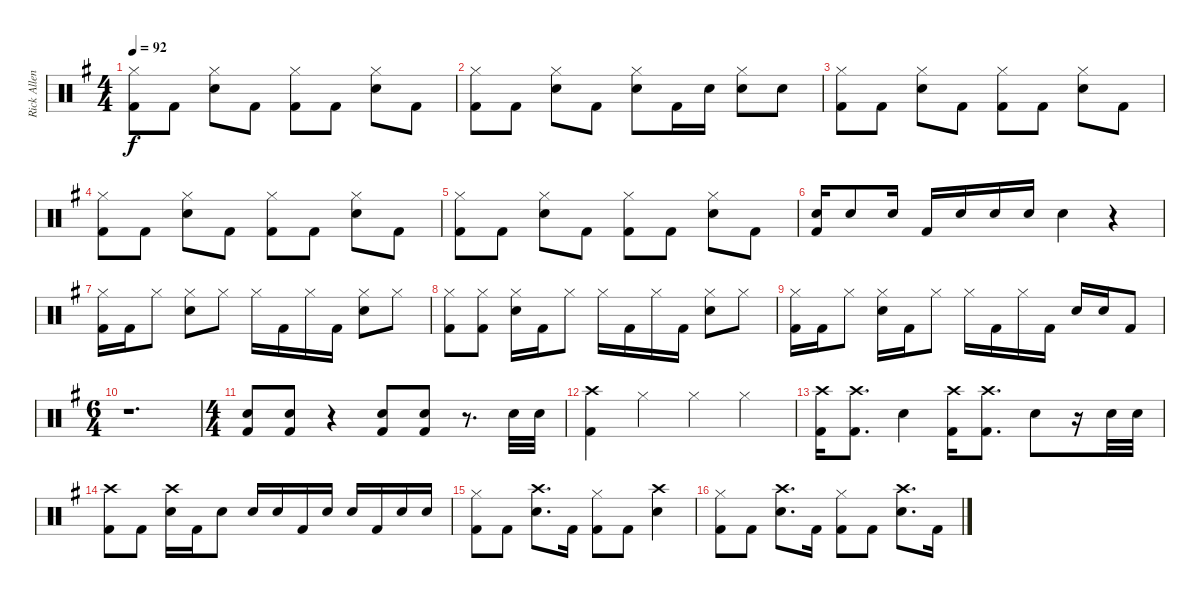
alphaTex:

\track ("Rick Allen" "Rick Allen") {instrument percussion}
\staff {score}
\articulation defaults
\ts (4 4)
\tempo 92
\clef neutral
\ks eminor
("Hi-Hat (closed)" "Kick (hit) 2").8{dy f} "Kick (hit) 2".8 ("Hi-Hat (closed)" "Electric Snare (hit)").8 "Kick (hit) 2".8 ("Hi-Hat (closed)" "Kick (hit) 2").8 "Kick (hit) 2".8 ("Hi-Hat (closed)" "Electric Snare (hit)").8 "Kick (hit) 2".8 |
("Hi-Hat (closed)" "Kick (hit) 2").8 "Kick (hit) 2".8 ("Hi-Hat (closed)" "Electric Snare (hit)").8 "Kick (hit) 2".8 ("Hi-Hat (closed)" "Electric Snare (hit)").8 "Kick (hit) 2".16 "Electric Snare (hit)".16 ("Hi-Hat (closed)" "Electric Snare (hit)").8 "Electric Snare (hit)".8 |
("Hi-Hat (closed)" "Kick (hit) 2").8 "Kick (hit) 2".8 ("Hi-Hat (closed)" "Electric Snare (hit)").8 "Kick (hit) 2".8 ("Hi-Hat (closed)" "Kick (hit) 2").8 "Kick (hit) 2".8 ("Hi-Hat (closed)" "Electric Snare (hit)").8 "Kick (hit) 2".8 |
("Hi-Hat (closed)" "Kick (hit) 2").8 "Kick (hit) 2".8 ("Hi-Hat (closed)" "Electric Snare (hit)").8 "Kick (hit) 2".8 ("Hi-Hat (closed)" "Kick (hit) 2").8 "Kick (hit) 2".8 ("Hi-Hat (closed)" "Electric Snare (hit)").8 "Kick (hit) 2".8 |
("Hi-Hat (closed)" "Kick (hit) 2").8 "Kick (hit) 2".8 ("Hi-Hat (closed)" "Electric Snare (hit)").8 "Kick (hit) 2".8 ("Hi-Hat (closed)" "Kick (hit) 2").8 "Kick (hit) 2".8 ("Hi-Hat (closed)" "Electric Snare (hit)").8 "Kick (hit) 2".8 |
("Electric Snare (hit)" "Kick (hit) 2").16 "Electric Snare (hit)".8 "Electric Snare (hit)".16 "Kick (hit) 2".16 "Electric Snare (hit)".16 "Electric Snare (hit)".16 "Electric Snare (hit)".16 "Electric Snare (hit)".4 r.4 |
("Hi-Hat (closed)" "Kick (hit) 2").16 "Kick (hit) 2".16 "Hi-Hat (closed)".8 ("Hi-Hat (closed)" "Electric Snare (hit)").8 "Hi-Hat (closed)".8 "Hi-Hat (closed)".16 "Kick (hit) 2".16 "Hi-Hat (closed)".16 "Kick (hit) 2".16 ("Hi-Hat (closed)" "Electric Snare (hit)").8 "Hi-Hat (closed)".8 |
("Hi-Hat (closed)" "Kick (hit) 2").8 ("Hi-Hat (closed)" "Kick (hit) 2").8 ("Hi-Hat (closed)" "Electric Snare (hit)").16 "Kick (hit) 2".16 "Hi-Hat (closed)".8 "Hi-Hat (closed)".16 "Kick (hit) 2".16 "Hi-Hat (closed)".16 "Kick (hit) 2".16 ("Hi-Hat (closed)" "Electric Snare (hit)").8 "Hi-Hat (closed)".8 |
("Hi-Hat (closed)" "Kick (hit) 2").16 "Kick (hit) 2".16 "Hi-Hat (closed)".8 ("Hi-Hat (closed)" "Electric Snare (hit)").16 "Kick (hit) 2".16 "Hi-Hat (closed)".8 "Hi-Hat (closed)".16 "Kick (hit) 2".16 "Hi-Hat (closed)".16 "Kick (hit) 2".16 "Electric Snare (hit)".16 "Electric Snare (hit)".16 "Kick (hit) 2".8 |
\ts (6 4)
r.1{d} |
\ts (4 4)
("Electric Snare (hit)" "Kick (hit) 2").8 ("Electric Snare (hit)" "Kick (hit) 2").8 r.4 ("Electric Snare (hit)" "Kick (hit) 2").8 ("Electric Snare (hit)" "Kick (hit) 2").8 r.8{d} "Electric Snare (hit)".32 "Electric Snare (hit)".32 |
("Crash high (hit)" "Kick (hit) 2").4 "Hi-Hat (closed)".4 "Hi-Hat (closed)".4 "Hi-Hat (closed)".4 |
("Crash high (hit)" "Kick (hit) 2").16 ("Crash high (hit)" "Kick (hit) 2").8{d} "Electric Snare (hit)".4 ("Crash high (hit)" "Kick (hit) 2").16 ("Crash high (hit)" "Kick (hit) 2").8{d} "Electric Snare (hit)".8 r.16 "Electric Snare (hit)".32 "Electric Snare (hit)".32 |
("Crash high (hit)" "Kick (hit) 2").8 "Kick (hit) 2".8 ("Crash high (hit)" "Electric Snare (hit)").16 "Kick (hit) 2".16 "Electric Snare (hit)".8 "Electric Snare (hit)".16 "Electric Snare (hit)".16 "Kick (hit) 2".16 "Electric Snare (hit)".16 "Electric Snare (hit)".16 "Kick (hit) 2".16 "Electric Snare (hit)".16 "Electric Snare (hit)".16 |
("Hi-Hat (closed)" "Kick (hit) 2").8 "Kick (hit) 2".8 ("Crash high (hit)" "Electric Snare (hit)").8{d} "Kick (hit) 2".16 ("Hi-Hat (closed)" "Kick (hit) 2").8 "Kick (hit) 2".8 ("Crash high (hit)" "Electric Snare (hit)").4 |
("Hi-Hat (closed)" "Kick (hit) 2").8 "Kick (hit) 2".8 ("Crash high (hit)" "Electric Snare (hit)").8{d} "Kick (hit) 2".16 ("Hi-Hat (closed)" "Kick (hit) 2").8 "Kick (hit) 2".8 ("Crash high (hit)" "Electric Snare (hit)").8{d} "Kick (hit) 2".16
